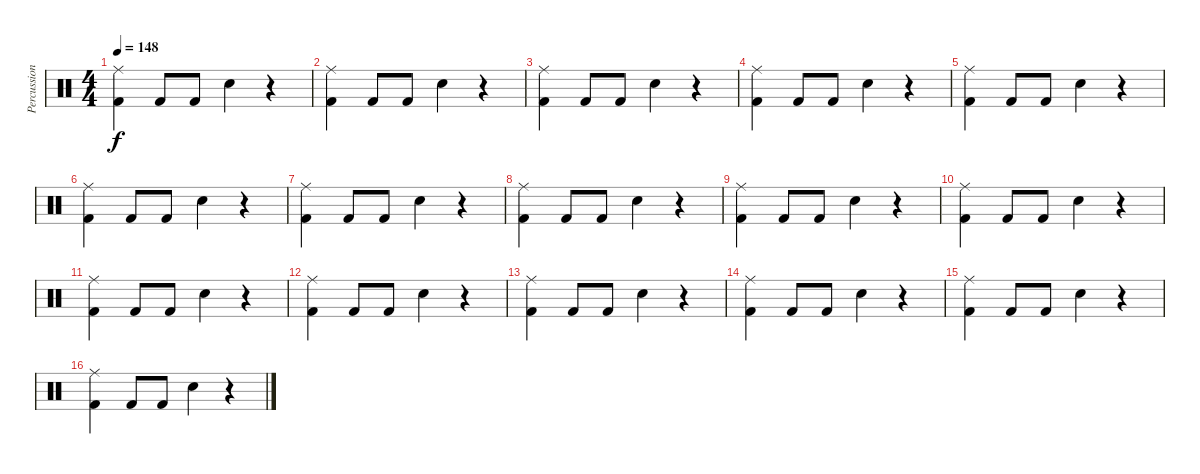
\track ("Percussion" "Percussion") {instrument percussion}
\staff {score}
\articulation defaults
\ts (4 4)
\tempo 148
\clef neutral
\ks c
("Kick (hit) 2" "Ride (middle)").4{dy f} "Kick (hit) 2".8 "Kick (hit) 2".8 "Electric Snare (hit)".4 r.4 |
("Kick (hit) 2" "Ride (middle)").4 "Kick (hit) 2".8 "Kick (hit) 2".8 "Electric Snare (hit)".4 r.4 |
("Kick (hit) 2" "Ride (middle)").4 "Kick (hit) 2".8 "Kick (hit) 2".8 "Electric Snare (hit)".4 r.4 |
("Kick (hit) 2" "Ride (middle)").4 "Kick (hit) 2".8 "Kick (hit) 2".8 "Electric Snare (hit)".4 r.4 |
("Kick (hit) 2" "Ride (middle)").4 "Kick (hit) 2".8 "Kick (hit) 2".8 "Electric Snare (hit)".4 r.4 |
("Kick (hit) 2" "Ride (middle)").4 "Kick (hit) 2".8 "Kick (hit) 2".8 "Electric Snare (hit)".4 r.4 |
("Kick (hit) 2" "Ride (middle)").4 "Kick (hit) 2".8 "Kick (hit) 2".8 "Electric Snare (hit)".4 r.4 |
("Kick (hit) 2" "Ride (middle)").4 "Kick (hit) 2".8 "Kick (hit) 2".8 "Electric Snare (hit)".4 r.4 |
("Kick (hit) 2" "Ride (middle)").4 "Kick (hit) 2".8 "Kick (hit) 2".8 "Electric Snare (hit)".4 r.4 |
("Kick (hit) 2" "Ride (middle)").4 "Kick (hit) 2".8 "Kick (hit) 2".8 "Electric Snare (hit)".4 r.4 |
("Kick (hit) 2" "Ride (middle)").4 "Kick (hit) 2".8 "Kick (hit) 2".8 "Electric Snare (hit)".4 r.4 |
("Kick (hit) 2" "Ride (middle)").4 "Kick (hit) 2".8 "Kick (hit) 2".8 "Electric Snare (hit)".4 r.4 |
("Kick (hit) 2" "Ride (middle)").4 "Kick (hit) 2".8 "Kick (hit) 2".8 "Electric Snare (hit)".4 r.4 |
("Kick (hit) 2" "Ride (middle)").4 "Kick (hit) 2".8 "Kick (hit) 2".8 "Electric Snare (hit)".4 r.4 |
("Kick (hit) 2" "Ride (middle)").4 "Kick (hit) 2".8 "Kick (hit) 2".8 "Electric Snare (hit)".4 r.4 |
("Kick (hit) 2" "Ride (middle)").4 "Kick (hit) 2".8 "Kick (hit) 2".8 "Electric Snare (hit)".4 r.4
